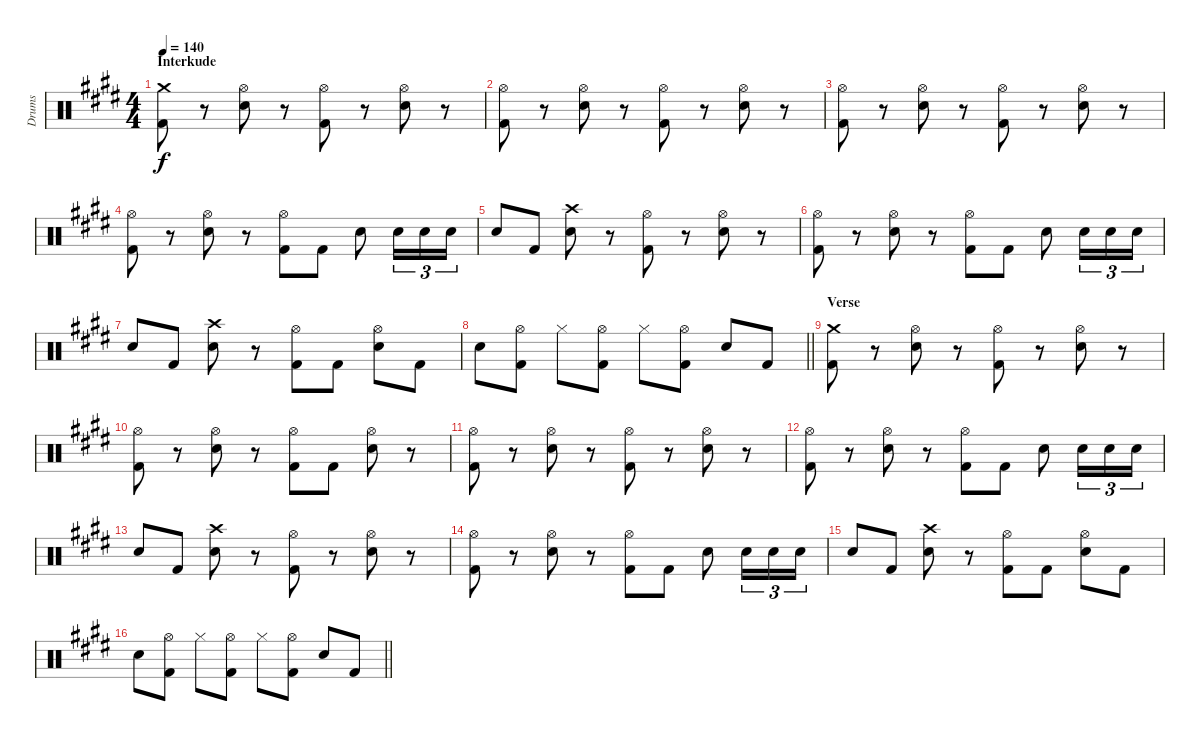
\track ("Drums" "Drums") {instrument percussion}
\staff {score}
\articulation defaults
\ts (4 4)
\section ("" "Interkude")
\tempo 140
\clef neutral
\ks c#minor
("Crash medium (hit)" "Kick (hit) 2").8{dy f} r.8 ("Hi-Hat (open)" "Electric Snare (hit)").8 r.8 ("Hi-Hat (open)" "Kick (hit) 2").8 r.8 ("Hi-Hat (open)" "Electric Snare (hit)").8 r.8 |
("Hi-Hat (open)" "Kick (hit) 2").8 r.8 ("Hi-Hat (open)" "Electric Snare (hit)").8 r.8 ("Hi-Hat (open)" "Kick (hit) 2").8 r.8 ("Hi-Hat (open)" "Electric Snare (hit)").8 r.8 |
("Hi-Hat (open)" "Kick (hit) 2").8 r.8 ("Hi-Hat (open)" "Electric Snare (hit)").8 r.8 ("Hi-Hat (open)" "Kick (hit) 2").8 r.8 ("Hi-Hat (open)" "Electric Snare (hit)").8 r.8 |
("Hi-Hat (open)" "Kick (hit) 2").8 r.8 ("Hi-Hat (open)" "Electric Snare (hit)").8 r.8 ("Hi-Hat (open)" "Kick (hit) 2").8 "Kick (hit) 2".8 "Electric Snare (hit)".8 "Electric Snare (hit)".16{tu (3 2)} "Electric Snare (hit)".16{tu (3 2)} "Electric Snare (hit)".16{tu (3 2)} |
\ks e "Electric Snare (hit)".8 "Kick (hit) 2".8
("Crash high (hit)" "Electric Snare (hit)").8 r.8 ("Hi-Hat (open)" "Kick (hit) 2").8 r.8 ("Hi-Hat (open)" "Electric Snare (hit)").8 r.8 |
\ks c#minor
("Hi-Hat (open)" "Kick (hit) 2").8 r.8 ("Hi-Hat (open)" "Electric Snare (hit)").8 r.8 ("Hi-Hat (open)" "Kick (hit) 2").8 "Kick (hit) 2".8 "Electric Snare (hit)".8 "Electric Snare (hit)".16{tu (3 2)} "Electric Snare (hit)".16{tu (3 2)} "Electric Snare (hit)".16{tu (3 2)} |
\ks e "Electric Snare (hit)".8 "Kick (hit) 2".8
("Crash high (hit)" "Electric Snare (hit)").8 r.8 ("Hi-Hat (open)" "Kick (hit) 2").8 "Kick (hit) 2".8 ("Hi-Hat (open)" "Electric Snare (hit)").8 "Kick (hit) 2".8 |
\barLineRight lightlight
\ks c#minor "Electric Snare (hit)".8
("Hi-Hat (open)" "Kick (hit) 2").8 "Hi-Hat (closed)".8 ("Hi-Hat (open)" "Kick (hit) 2").8 "Hi-Hat (closed)".8 ("Hi-Hat (open)" "Kick (hit) 2").8 "Electric Snare (hit)".8 "Kick (hit) 2".8 |
\section ("" "Verse")
("Crash medium (hit)" "Kick (hit) 2").8 r.8 ("Hi-Hat (open)" "Electric Snare (hit)").8 r.8 ("Hi-Hat (open)" "Kick (hit) 2").8 r.8 ("Hi-Hat (open)" "Electric Snare (hit)").8 r.8 |
("Hi-Hat (open)" "Kick (hit) 2").8 r.8 ("Hi-Hat (open)" "Electric Snare (hit)").8 r.8 ("Hi-Hat (open)" "Kick (hit) 2").8 "Kick (hit) 2".8 ("Hi-Hat (open)" "Electric Snare (hit)").8 r.8 |
("Hi-Hat (open)" "Kick (hit) 2").8 r.8 ("Hi-Hat (open)" "Electric Snare (hit)").8 r.8 ("Hi-Hat (open)" "Kick (hit) 2").8 r.8 ("Hi-Hat (open)" "Electric Snare (hit)").8 r.8 |
("Hi-Hat (open)" "Kick (hit) 2").8 r.8 ("Hi-Hat (open)" "Electric Snare (hit)").8 r.8 ("Hi-Hat (open)" "Kick (hit) 2").8 "Kick (hit) 2".8 "Electric Snare (hit)".8 "Electric Snare (hit)".16{tu (3 2)} "Electric Snare (hit)".16{tu (3 2)} "Electric Snare (hit)".16{tu (3 2)} |
\ks e "Electric Snare (hit)".8 "Kick (hit) 2".8
("Crash high (hit)" "Electric Snare (hit)").8 r.8 ("Hi-Hat (open)" "Kick (hit) 2").8 r.8 ("Hi-Hat (open)" "Electric Snare (hit)").8 r.8 |
\ks c#minor
("Hi-Hat (open)" "Kick (hit) 2").8 r.8 ("Hi-Hat (open)" "Electric Snare (hit)").8 r.8 ("Hi-Hat (open)" "Kick (hit) 2").8 "Kick (hit) 2".8 "Electric Snare (hit)".8 "Electric Snare (hit)".16{tu (3 2)} "Electric Snare (hit)".16{tu (3 2)} "Electric Snare (hit)".16{tu (3 2)} |
\ks e "Electric Snare (hit)".8 "Kick (hit) 2".8
("Crash high (hit)" "Electric Snare (hit)").8 r.8 ("Hi-Hat (open)" "Kick (hit) 2").8 "Kick (hit) 2".8 ("Hi-Hat (open)" "Electric Snare (hit)").8 "Kick (hit) 2".8 |
\barLineRight lightlight
\ks c#minor "Electric Snare (hit)".8
("Hi-Hat (open)" "Kick (hit) 2").8 "Hi-Hat (closed)".8 ("Hi-Hat (open)" "Kick (hit) 2").8 "Hi-Hat (closed)".8 ("Hi-Hat (open)" "Kick (hit) 2").8 "Electric Snare (hit)".8 "Kick (hit) 2".8
